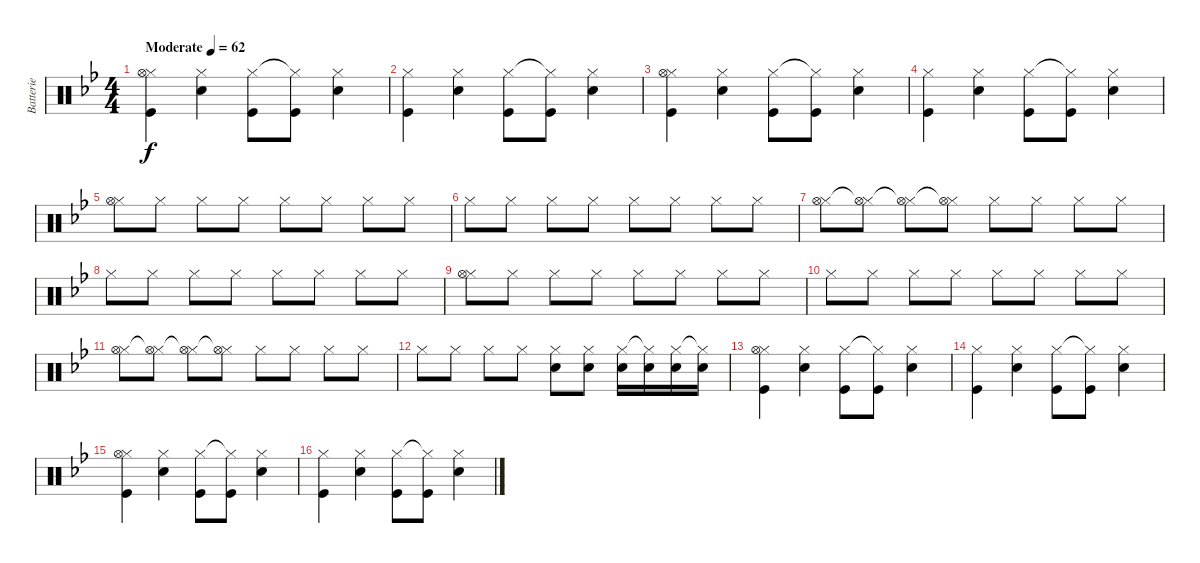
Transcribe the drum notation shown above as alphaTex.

\track ("Batterie" "Batterie") {instrument percussion}
\staff {score}
\articulation defaults
\ts (4 4)
\tempo (62 "Moderate")
\clef neutral
\ks bb
("Hi-Hat (closed)" "Hi-Hat (open)" "Kick (hit)").4{dy f} ("Hi-Hat (closed)" "Snare (hit) 2").4 ("Hi-Hat (closed)" "Kick (hit)").8 ("Hi-Hat (closed)"{t} "Kick (hit)").8 ("Hi-Hat (closed)" "Snare (hit) 2").4 |
("Hi-Hat (closed)" "Kick (hit)").4 ("Hi-Hat (closed)" "Snare (hit) 2").4 ("Hi-Hat (closed)" "Kick (hit)").8 ("Hi-Hat (closed)"{t} "Kick (hit)").8 ("Hi-Hat (closed)" "Snare (hit) 2").4 |
("Hi-Hat (closed)" "Hi-Hat (open)" "Kick (hit)").4 ("Hi-Hat (closed)" "Snare (hit) 2").4 ("Hi-Hat (closed)" "Kick (hit)").8 ("Hi-Hat (closed)"{t} "Kick (hit)").8 ("Hi-Hat (closed)" "Snare (hit) 2").4 |
("Hi-Hat (closed)" "Kick (hit)").4 ("Hi-Hat (closed)" "Snare (hit) 2").4 ("Hi-Hat (closed)" "Kick (hit)").8 ("Hi-Hat (closed)"{t} "Kick (hit)").8 ("Hi-Hat (closed)" "Snare (hit) 2").4 |
("Hi-Hat (closed)" "Hi-Hat (open)").8 "Hi-Hat (closed)".8 "Hi-Hat (closed)".8 "Hi-Hat (closed)".8 "Hi-Hat (closed)".8 "Hi-Hat (closed)".8 "Hi-Hat (closed)".8 "Hi-Hat (closed)".8 |
"Hi-Hat (closed)".8 "Hi-Hat (closed)".8 "Hi-Hat (closed)".8 "Hi-Hat (closed)".8 "Hi-Hat (closed)".8 "Hi-Hat (closed)".8 "Hi-Hat (closed)".8 "Hi-Hat (closed)".8 |
("Hi-Hat (closed)" "Hi-Hat (open)").8 ("Hi-Hat (closed)" "Hi-Hat (open)"{t}).8 ("Hi-Hat (closed)" "Hi-Hat (open)"{t}).8 ("Hi-Hat (closed)" "Hi-Hat (open)"{t}).8 "Hi-Hat (closed)".8 "Hi-Hat (closed)".8 "Hi-Hat (closed)".8 "Hi-Hat (closed)".8 |
"Hi-Hat (closed)".8 "Hi-Hat (closed)".8 "Hi-Hat (closed)".8 "Hi-Hat (closed)".8 "Hi-Hat (closed)".8 "Hi-Hat (closed)".8 "Hi-Hat (closed)".8 "Hi-Hat (closed)".8 |
("Hi-Hat (closed)" "Hi-Hat (open)").8 "Hi-Hat (closed)".8 "Hi-Hat (closed)".8 "Hi-Hat (closed)".8 "Hi-Hat (closed)".8 "Hi-Hat (closed)".8 "Hi-Hat (closed)".8 "Hi-Hat (closed)".8 |
"Hi-Hat (closed)".8 "Hi-Hat (closed)".8 "Hi-Hat (closed)".8 "Hi-Hat (closed)".8 "Hi-Hat (closed)".8 "Hi-Hat (closed)".8 "Hi-Hat (closed)".8 "Hi-Hat (closed)".8 |
("Hi-Hat (closed)" "Hi-Hat (open)").8 ("Hi-Hat (closed)" "Hi-Hat (open)"{t}).8 ("Hi-Hat (closed)" "Hi-Hat (open)"{t}).8 ("Hi-Hat (closed)" "Hi-Hat (open)"{t}).8 "Hi-Hat (closed)".8 "Hi-Hat (closed)".8 "Hi-Hat (closed)".8 "Hi-Hat (closed)".8 |
"Hi-Hat (closed)".8 "Hi-Hat (closed)".8 "Hi-Hat (closed)".8 "Hi-Hat (closed)".8 ("Hi-Hat (closed)" "Snare (hit) 2").8 ("Hi-Hat (closed)" "Snare (hit) 2").8 ("Hi-Hat (closed)" "Snare (hit) 2").16 ("Hi-Hat (closed)"{t} "Snare (hit) 2").16 ("Hi-Hat (closed)" "Snare (hit) 2").16 ("Hi-Hat (closed)"{t} "Snare (hit) 2").16 |
("Hi-Hat (closed)" "Hi-Hat (open)" "Kick (hit)").4 ("Hi-Hat (closed)" "Snare (hit) 2").4 ("Hi-Hat (closed)" "Kick (hit)").8 ("Hi-Hat (closed)"{t} "Kick (hit)").8 ("Hi-Hat (closed)" "Snare (hit) 2").4 |
("Hi-Hat (closed)" "Kick (hit)").4 ("Hi-Hat (closed)" "Snare (hit) 2").4 ("Hi-Hat (closed)" "Kick (hit)").8 ("Hi-Hat (closed)"{t} "Kick (hit)").8 ("Hi-Hat (closed)" "Snare (hit) 2").4 |
("Hi-Hat (closed)" "Hi-Hat (open)" "Kick (hit)").4 ("Hi-Hat (closed)" "Snare (hit) 2").4 ("Hi-Hat (closed)" "Kick (hit)").8 ("Hi-Hat (closed)"{t} "Kick (hit)").8 ("Hi-Hat (closed)" "Snare (hit) 2").4 |
("Hi-Hat (closed)" "Kick (hit)").4 ("Hi-Hat (closed)" "Snare (hit) 2").4 ("Hi-Hat (closed)" "Kick (hit)").8 ("Hi-Hat (closed)"{t} "Kick (hit)").8 ("Hi-Hat (closed)" "Snare (hit) 2").4
